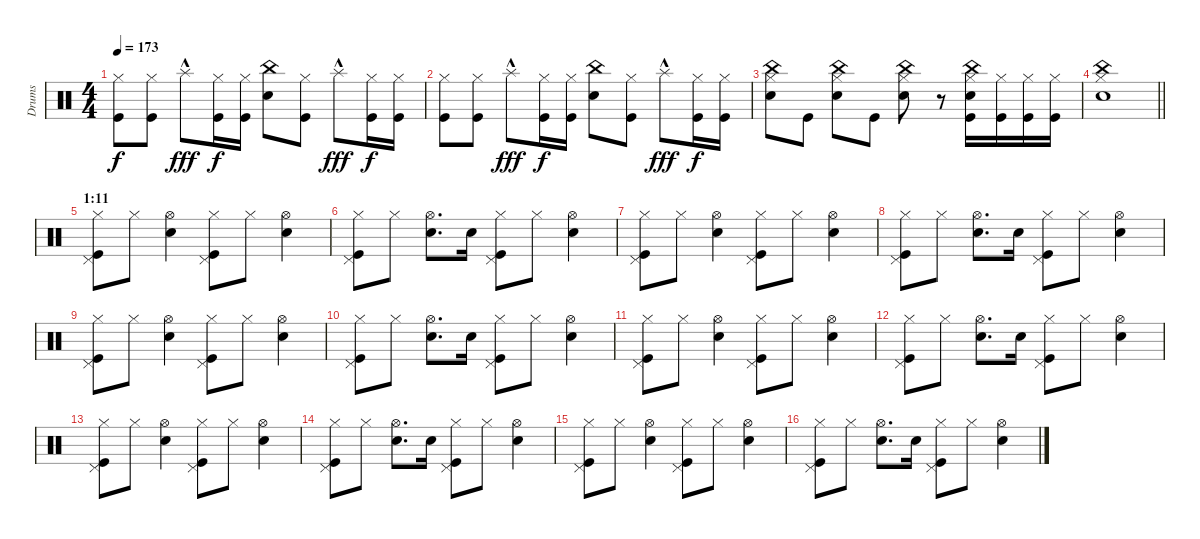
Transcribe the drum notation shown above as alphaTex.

\track ("Drums" "Drums") {instrument percussion}
\staff {score}
\articulation defaults
\ts (4 4)
\tempo 173
\clef neutral
\ks c
("Hi-Hat (closed)" "Kick (hit)").8{dy f} ("Hi-Hat (closed)" "Kick (hit)").8 "Splash (hit)"{hac}.8{dy fff} ("Hi-Hat (closed)" "Kick (hit)").16{dy f} ("Hi-Hat (closed)" "Kick (hit)").16 ("China (hit)" "Snare (hit) 2").8 ("Hi-Hat (closed)" "Kick (hit)").8 "Splash (hit)"{hac}.8{dy fff} ("Hi-Hat (closed)" "Kick (hit)").16{dy f} ("Hi-Hat (closed)" "Kick (hit)").16 |
("Hi-Hat (closed)" "Kick (hit)").8 ("Hi-Hat (closed)" "Kick (hit)").8 "Splash (hit)"{hac}.8{dy fff} ("Hi-Hat (closed)" "Kick (hit)").16{dy f} ("Hi-Hat (closed)" "Kick (hit)").16 ("China (hit)" "Snare (hit) 2").8 ("Hi-Hat (closed)" "Kick (hit)").8 "Splash (hit)"{hac}.8{dy fff} ("Hi-Hat (closed)" "Kick (hit)").16{dy f} ("Hi-Hat (closed)" "Kick (hit)").16 |
("China (hit)" "Snare (hit) 2" "Hi-Hat (closed)").8 "Kick (hit)".8 ("China (hit)" "Snare (hit) 2" "Hi-Hat (closed)").8 "Kick (hit)".8 ("China (hit)" "Snare (hit) 2" "Hi-Hat (closed)").8 r.8 ("China (hit)" "Snare (hit) 2" "Hi-Hat (closed)" "Kick (hit)").16 ("Hi-Hat (closed)" "Kick (hit)").16 ("Hi-Hat (closed)" "Kick (hit)").16 ("Hi-Hat (closed)" "Kick (hit)").16 |
\barLineRight lightlight
("China (hit)" "Snare (hit) 2" "Hi-Hat (closed)").1 |
\section ("" "1:11")
("Pedal Hi-Hat (hit)" "Hi-Hat (closed)" "Kick (hit)").8 "Hi-Hat (closed)".8 ("Hi-Hat (open)" "Snare (hit) 2").4 ("Pedal Hi-Hat (hit)" "Hi-Hat (closed)" "Kick (hit)").8 "Hi-Hat (closed)".8 ("Hi-Hat (open)" "Snare (hit) 2").4 |
("Pedal Hi-Hat (hit)" "Hi-Hat (closed)" "Kick (hit)").8 "Hi-Hat (closed)".8 ("Hi-Hat (open)" "Snare (hit) 2").8{d} "Snare (hit) 2".16 ("Pedal Hi-Hat (hit)" "Hi-Hat (closed)" "Kick (hit)").8 "Hi-Hat (closed)".8 ("Hi-Hat (open)" "Snare (hit) 2").4 |
("Pedal Hi-Hat (hit)" "Hi-Hat (closed)" "Kick (hit)").8 "Hi-Hat (closed)".8 ("Hi-Hat (open)" "Snare (hit) 2").4 ("Pedal Hi-Hat (hit)" "Hi-Hat (closed)" "Kick (hit)").8 "Hi-Hat (closed)".8 ("Hi-Hat (open)" "Snare (hit) 2").4 |
("Pedal Hi-Hat (hit)" "Hi-Hat (closed)" "Kick (hit)").8 "Hi-Hat (closed)".8 ("Hi-Hat (open)" "Snare (hit) 2").8{d} "Snare (hit) 2".16 ("Pedal Hi-Hat (hit)" "Hi-Hat (closed)" "Kick (hit)").8 "Hi-Hat (closed)".8 ("Hi-Hat (open)" "Snare (hit) 2").4 |
("Pedal Hi-Hat (hit)" "Hi-Hat (closed)" "Kick (hit)").8 "Hi-Hat (closed)".8 ("Hi-Hat (open)" "Snare (hit) 2").4 ("Pedal Hi-Hat (hit)" "Hi-Hat (closed)" "Kick (hit)").8 "Hi-Hat (closed)".8 ("Hi-Hat (open)" "Snare (hit) 2").4 |
("Pedal Hi-Hat (hit)" "Hi-Hat (closed)" "Kick (hit)").8 "Hi-Hat (closed)".8 ("Hi-Hat (open)" "Snare (hit) 2").8{d} "Snare (hit) 2".16 ("Pedal Hi-Hat (hit)" "Hi-Hat (closed)" "Kick (hit)").8 "Hi-Hat (closed)".8 ("Hi-Hat (open)" "Snare (hit) 2").4 |
("Pedal Hi-Hat (hit)" "Hi-Hat (closed)" "Kick (hit)").8 "Hi-Hat (closed)".8 ("Hi-Hat (open)" "Snare (hit) 2").4 ("Pedal Hi-Hat (hit)" "Hi-Hat (closed)" "Kick (hit)").8 "Hi-Hat (closed)".8 ("Hi-Hat (open)" "Snare (hit) 2").4 |
("Pedal Hi-Hat (hit)" "Hi-Hat (closed)" "Kick (hit)").8 "Hi-Hat (closed)".8 ("Hi-Hat (open)" "Snare (hit) 2").8{d} "Snare (hit) 2".16 ("Pedal Hi-Hat (hit)" "Hi-Hat (closed)" "Kick (hit)").8 "Hi-Hat (closed)".8 ("Hi-Hat (open)" "Snare (hit) 2").4 |
("Pedal Hi-Hat (hit)" "Hi-Hat (closed)" "Kick (hit)").8 "Hi-Hat (closed)".8 ("Hi-Hat (open)" "Snare (hit) 2").4 ("Pedal Hi-Hat (hit)" "Hi-Hat (closed)" "Kick (hit)").8 "Hi-Hat (closed)".8 ("Hi-Hat (open)" "Snare (hit) 2").4 |
("Pedal Hi-Hat (hit)" "Hi-Hat (closed)" "Kick (hit)").8 "Hi-Hat (closed)".8 ("Hi-Hat (open)" "Snare (hit) 2").8{d} "Snare (hit) 2".16 ("Pedal Hi-Hat (hit)" "Hi-Hat (closed)" "Kick (hit)").8 "Hi-Hat (closed)".8 ("Hi-Hat (open)" "Snare (hit) 2").4 |
("Pedal Hi-Hat (hit)" "Hi-Hat (closed)" "Kick (hit)").8 "Hi-Hat (closed)".8 ("Hi-Hat (open)" "Snare (hit) 2").4 ("Pedal Hi-Hat (hit)" "Hi-Hat (closed)" "Kick (hit)").8 "Hi-Hat (closed)".8 ("Hi-Hat (open)" "Snare (hit) 2").4 |
("Pedal Hi-Hat (hit)" "Hi-Hat (closed)" "Kick (hit)").8 "Hi-Hat (closed)".8 ("Hi-Hat (open)" "Snare (hit) 2").8{d} "Snare (hit) 2".16 ("Pedal Hi-Hat (hit)" "Hi-Hat (closed)" "Kick (hit)").8 "Hi-Hat (closed)".8 ("Hi-Hat (open)" "Snare (hit) 2").4
